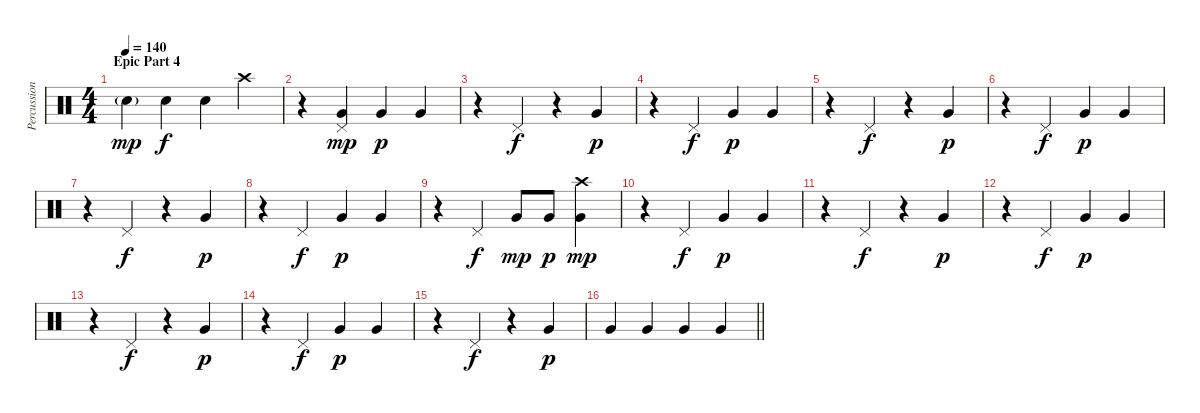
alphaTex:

\track ("Percussions" "Percussion") {instrument percussion}
\staff {score}
\articulation defaults
\ts (4 4)
\section ("" "Epic Part 4")
\tempo 140
\clef neutral
\ks c "Electric Snare (hit)"{g}.4{dy mp} "Electric Snare (hit)".4{dy f} "Electric Snare (hit)".4 "Crash high (hit)".4
|
r.4 ("Pedal Hi-Hat (hit)" "Very Low Tom (hit)").4{dy mp} "Very Low Tom (hit)".4{dy p} "Very Low Tom (hit)".4 |
r.4 "Pedal Hi-Hat (hit)".4{dy f} r.4 "Very Low Tom (hit)".4{dy p} |
r.4 "Pedal Hi-Hat (hit)".4{dy f} "Very Low Tom (hit)".4{dy p} "Very Low Tom (hit)".4 |
r.4 "Pedal Hi-Hat (hit)".4{dy f} r.4 "Very Low Tom (hit)".4{dy p} |
r.4 "Pedal Hi-Hat (hit)".4{dy f} "Very Low Tom (hit)".4{dy p} "Very Low Tom (hit)".4 |
r.4 "Pedal Hi-Hat (hit)".4{dy f} r.4 "Very Low Tom (hit)".4{dy p} |
r.4 "Pedal Hi-Hat (hit)".4{dy f} "Very Low Tom (hit)".4{dy p} "Very Low Tom (hit)".4 |
r.4 "Pedal Hi-Hat (hit)".4{dy f} "Very Low Tom (hit)".8{dy mp} "Very Low Tom (hit)".8{dy p} ("Very Low Tom (hit)" "Crash high (hit)").4{dy mp} |
r.4 "Pedal Hi-Hat (hit)".4{dy f} "Very Low Tom (hit)".4{dy p} "Very Low Tom (hit)".4 |
r.4 "Pedal Hi-Hat (hit)".4{dy f} r.4 "Very Low Tom (hit)".4{dy p} |
r.4 "Pedal Hi-Hat (hit)".4{dy f} "Very Low Tom (hit)".4{dy p} "Very Low Tom (hit)".4 |
r.4 "Pedal Hi-Hat (hit)".4{dy f} r.4 "Very Low Tom (hit)".4{dy p} |
r.4 "Pedal Hi-Hat (hit)".4{dy f} "Very Low Tom (hit)".4{dy p} "Very Low Tom (hit)".4 |
r.4 "Pedal Hi-Hat (hit)".4{dy f} r.4 "Very Low Tom (hit)".4{dy p} |
\barLineRight lightlight "Very Low Tom (hit)".4 "Very Low Tom (hit)".4 "Very Low Tom (hit)".4 "Very Low Tom (hit)".4
